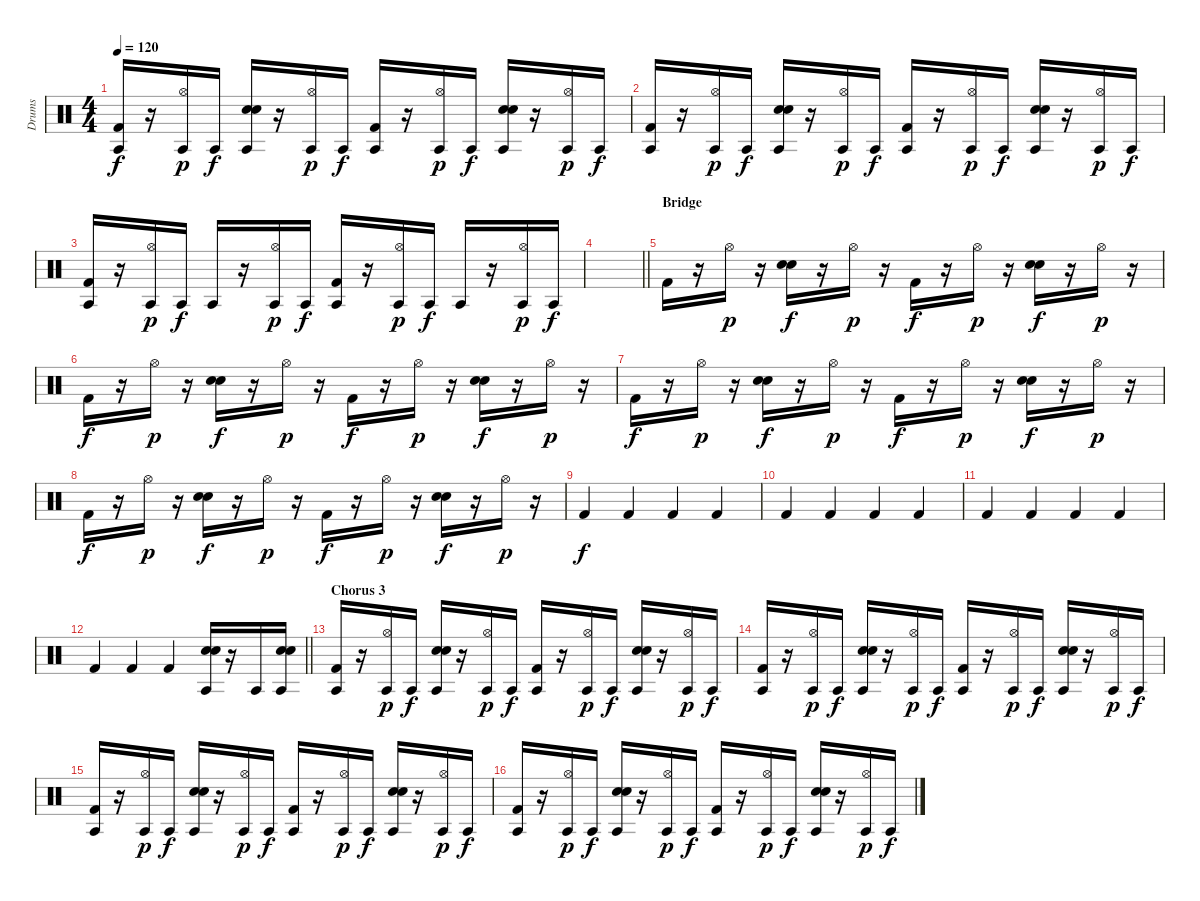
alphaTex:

\track ("Drums" "Drums") {instrument percussion}
\staff {score}
\articulation defaults
\ts (4 4)
\tempo 120
\clef neutral
\ks c
("Kick (hit) 2" "Agogo tow (hit)").16{dy f} r.16 ("Agogo tow (hit)" "Hi-Hat (open)").16{dy p} "Agogo tow (hit)".16{dy f} ("Snare (hit) 2" "Hand Clap (hit)" "Agogo tow (hit)").16 r.16 ("Agogo tow (hit)" "Hi-Hat (open)").16{dy p} "Agogo tow (hit)".16{dy f} ("Kick (hit) 2" "Agogo tow (hit)").16 r.16 ("Hi-Hat (open)" "Agogo tow (hit)").16{dy p} "Agogo tow (hit)".16{dy f} ("Snare (hit) 2" "Hand Clap (hit)" "Agogo tow (hit)").16 r.16 ("Hi-Hat (open)" "Agogo tow (hit)").16{dy p} "Agogo tow (hit)".16{dy f} |
("Kick (hit) 2" "Agogo tow (hit)").16 r.16 ("Agogo tow (hit)" "Hi-Hat (open)").16{dy p} "Agogo tow (hit)".16{dy f} ("Snare (hit) 2" "Hand Clap (hit)" "Agogo tow (hit)").16 r.16 ("Agogo tow (hit)" "Hi-Hat (open)").16{dy p} "Agogo tow (hit)".16{dy f} ("Kick (hit) 2" "Agogo tow (hit)").16 r.16 ("Hi-Hat (open)" "Agogo tow (hit)").16{dy p} "Agogo tow (hit)".16{dy f} ("Snare (hit) 2" "Hand Clap (hit)" "Agogo tow (hit)").16 r.16 ("Hi-Hat (open)" "Agogo tow (hit)").16{dy p} "Agogo tow (hit)".16{dy f} |
("Kick (hit) 2" "Agogo tow (hit)").16 r.16 ("Agogo tow (hit)" "Hi-Hat (open)").16{dy p} "Agogo tow (hit)".16{dy f} "Agogo tow (hit)".16 r.16 ("Agogo tow (hit)" "Hi-Hat (open)").16{dy p} "Agogo tow (hit)".16{dy f} ("Kick (hit) 2" "Agogo tow (hit)").16 r.16 ("Hi-Hat (open)" "Agogo tow (hit)").16{dy p} "Agogo tow (hit)".16{dy f} "Agogo tow (hit)".16 r.16 ("Hi-Hat (open)" "Agogo tow (hit)").16{dy p} "Agogo tow (hit)".16{dy f} |
\barLineRight lightlight
|
\section ("" "Bridge")
"Kick (hit) 2".16 r.16 "Hi-Hat (open)".16{dy p} r.16 ("Snare (hit) 2" "Hand Clap (hit)").16{dy f} r.16 "Hi-Hat (open)".16{dy p} r.16 "Kick (hit) 2".16{dy f} r.16 "Hi-Hat (open)".16{dy p} r.16 ("Hand Clap (hit)" "Snare (hit) 2").16{dy f} r.16 "Hi-Hat (open)".16{dy p} r.16 |
"Kick (hit) 2".16{dy f} r.16 "Hi-Hat (open)".16{dy p} r.16 ("Snare (hit) 2" "Hand Clap (hit)").16{dy f} r.16 "Hi-Hat (open)".16{dy p} r.16 "Kick (hit) 2".16{dy f} r.16 "Hi-Hat (open)".16{dy p} r.16 ("Hand Clap (hit)" "Snare (hit) 2").16{dy f} r.16 "Hi-Hat (open)".16{dy p} r.16 |
"Kick (hit) 2".16{dy f} r.16 "Hi-Hat (open)".16{dy p} r.16 ("Snare (hit) 2" "Hand Clap (hit)").16{dy f} r.16 "Hi-Hat (open)".16{dy p} r.16 "Kick (hit) 2".16{dy f} r.16 "Hi-Hat (open)".16{dy p} r.16 ("Hand Clap (hit)" "Snare (hit) 2").16{dy f} r.16 "Hi-Hat (open)".16{dy p} r.16 |
"Kick (hit) 2".16{dy f} r.16 "Hi-Hat (open)".16{dy p} r.16 ("Snare (hit) 2" "Hand Clap (hit)").16{dy f} r.16 "Hi-Hat (open)".16{dy p} r.16 "Kick (hit) 2".16{dy f} r.16 "Hi-Hat (open)".16{dy p} r.16 ("Hand Clap (hit)" "Snare (hit) 2").16{dy f} r.16 "Hi-Hat (open)".16{dy p} r.16 |
"Kick (hit) 2".4{dy f} "Kick (hit) 2".4 "Kick (hit) 2".4 "Kick (hit) 2".4 |
"Kick (hit) 2".4 "Kick (hit) 2".4 "Kick (hit) 2".4 "Kick (hit) 2".4 |
"Kick (hit) 2".4 "Kick (hit) 2".4 "Kick (hit) 2".4 "Kick (hit) 2".4 |
\barLineRight lightlight "Kick (hit) 2".4 "Kick (hit) 2".4 "Kick (hit) 2".4
("Snare (hit) 2" "Hand Clap (hit)" "Agogo tow (hit)").16 r.16 "Agogo tow (hit)".16 ("Snare (hit) 2" "Hand Clap (hit)" "Agogo tow (hit)").16 |
\section ("" "Chorus 3")
("Kick (hit) 2" "Agogo tow (hit)").16 r.16 ("Agogo tow (hit)" "Hi-Hat (open)").16{dy p} "Agogo tow (hit)".16{dy f} ("Snare (hit) 2" "Hand Clap (hit)" "Agogo tow (hit)").16 r.16 ("Agogo tow (hit)" "Hi-Hat (open)").16{dy p} "Agogo tow (hit)".16{dy f} ("Kick (hit) 2" "Agogo tow (hit)").16 r.16 ("Hi-Hat (open)" "Agogo tow (hit)").16{dy p} "Agogo tow (hit)".16{dy f} ("Snare (hit) 2" "Hand Clap (hit)" "Agogo tow (hit)").16 r.16 ("Hi-Hat (open)" "Agogo tow (hit)").16{dy p} "Agogo tow (hit)".16{dy f} |
("Kick (hit) 2" "Agogo tow (hit)").16 r.16 ("Agogo tow (hit)" "Hi-Hat (open)").16{dy p} "Agogo tow (hit)".16{dy f} ("Snare (hit) 2" "Hand Clap (hit)" "Agogo tow (hit)").16 r.16 ("Agogo tow (hit)" "Hi-Hat (open)").16{dy p} "Agogo tow (hit)".16{dy f} ("Kick (hit) 2" "Agogo tow (hit)").16 r.16 ("Hi-Hat (open)" "Agogo tow (hit)").16{dy p} "Agogo tow (hit)".16{dy f} ("Snare (hit) 2" "Hand Clap (hit)" "Agogo tow (hit)").16 r.16 ("Hi-Hat (open)" "Agogo tow (hit)").16{dy p} "Agogo tow (hit)".16{dy f} |
("Kick (hit) 2" "Agogo tow (hit)").16 r.16 ("Agogo tow (hit)" "Hi-Hat (open)").16{dy p} "Agogo tow (hit)".16{dy f} ("Snare (hit) 2" "Hand Clap (hit)" "Agogo tow (hit)").16 r.16 ("Agogo tow (hit)" "Hi-Hat (open)").16{dy p} "Agogo tow (hit)".16{dy f} ("Kick (hit) 2" "Agogo tow (hit)").16 r.16 ("Hi-Hat (open)" "Agogo tow (hit)").16{dy p} "Agogo tow (hit)".16{dy f} ("Snare (hit) 2" "Hand Clap (hit)" "Agogo tow (hit)").16 r.16 ("Hi-Hat (open)" "Agogo tow (hit)").16{dy p} "Agogo tow (hit)".16{dy f} |
("Kick (hit) 2" "Agogo tow (hit)").16 r.16 ("Agogo tow (hit)" "Hi-Hat (open)").16{dy p} "Agogo tow (hit)".16{dy f} ("Snare (hit) 2" "Hand Clap (hit)" "Agogo tow (hit)").16 r.16 ("Agogo tow (hit)" "Hi-Hat (open)").16{dy p} "Agogo tow (hit)".16{dy f} ("Kick (hit) 2" "Agogo tow (hit)").16 r.16 ("Hi-Hat (open)" "Agogo tow (hit)").16{dy p} "Agogo tow (hit)".16{dy f} ("Snare (hit) 2" "Hand Clap (hit)" "Agogo tow (hit)").16 r.16 ("Hi-Hat (open)" "Agogo tow (hit)").16{dy p} "Agogo tow (hit)".16{dy f}
